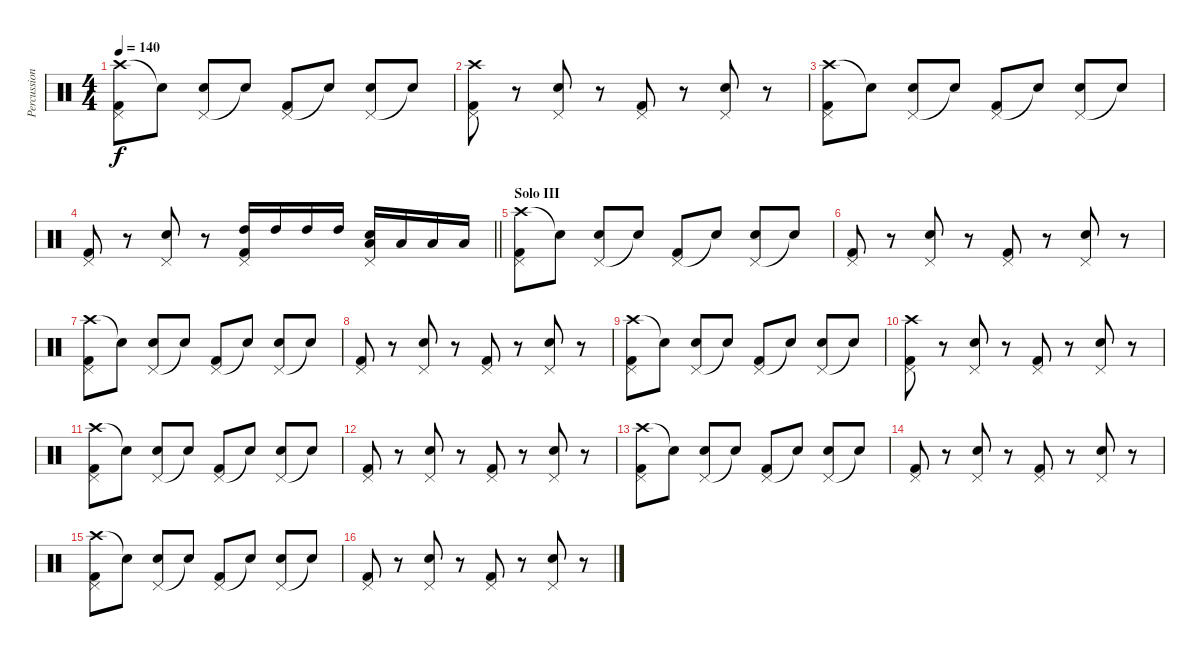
\track ("Percussion" "Percussion") {instrument percussion}
\staff {score}
\articulation defaults
\ts (4 4)
\tempo 140
\clef neutral
\ks c
("Crash high (hit)" "Pedal Hi-Hat (hit)" "Kick (hit) 2").8{dy f} "Snare (hit)"{t}.8 ("Pedal Hi-Hat (hit)" "Electric Snare (hit)").8 "Snare (hit)"{t}.8 ("Pedal Hi-Hat (hit)" "Kick (hit) 2").8 "Snare (hit)"{t}.8 ("Pedal Hi-Hat (hit)" "Electric Snare (hit)").8 "Snare (hit)"{t}.8 |
("Crash high (hit)" "Pedal Hi-Hat (hit)" "Kick (hit) 2").8 r.8 ("Pedal Hi-Hat (hit)" "Electric Snare (hit)").8 r.8 ("Pedal Hi-Hat (hit)" "Kick (hit) 2").8 r.8 ("Pedal Hi-Hat (hit)" "Electric Snare (hit)").8 r.8 |
("Crash high (hit)" "Pedal Hi-Hat (hit)" "Kick (hit) 2").8 "Snare (hit)"{t}.8 ("Pedal Hi-Hat (hit)" "Electric Snare (hit)").8 "Snare (hit)"{t}.8 ("Pedal Hi-Hat (hit)" "Kick (hit) 2").8 "Snare (hit)"{t}.8 ("Pedal Hi-Hat (hit)" "Electric Snare (hit)").8 "Snare (hit)"{t}.8 |
\barLineRight lightlight
("Pedal Hi-Hat (hit)" "Kick (hit) 2").8 r.8 ("Pedal Hi-Hat (hit)" "Electric Snare (hit)").8 r.8 ("High Tom (hit)" "Pedal Hi-Hat (hit)" "Kick (hit) 2").16 "High Tom (hit)".16 "High Tom (hit)".16 "High Tom (hit)".16 ("Low Tom (hit)" "Pedal Hi-Hat (hit)" "Electric Snare (hit)").16 "Low Tom (hit)".16 "Low Tom (hit)".16 "Low Tom (hit)".16 |
\section ("" "Solo III")
("Crash high (hit)" "Pedal Hi-Hat (hit)" "Kick (hit) 2").8 "Snare (hit)"{t}.8 ("Pedal Hi-Hat (hit)" "Electric Snare (hit)").8 "Snare (hit)"{t}.8 ("Pedal Hi-Hat (hit)" "Kick (hit) 2").8 "Snare (hit)"{t}.8 ("Pedal Hi-Hat (hit)" "Electric Snare (hit)").8 "Snare (hit)"{t}.8 |
("Pedal Hi-Hat (hit)" "Kick (hit) 2").8 r.8 ("Pedal Hi-Hat (hit)" "Electric Snare (hit)").8 r.8 ("Pedal Hi-Hat (hit)" "Kick (hit) 2").8 r.8 ("Pedal Hi-Hat (hit)" "Electric Snare (hit)").8 r.8 |
("Crash high (hit)" "Pedal Hi-Hat (hit)" "Kick (hit) 2").8 "Snare (hit)"{t}.8 ("Pedal Hi-Hat (hit)" "Electric Snare (hit)").8 "Snare (hit)"{t}.8 ("Pedal Hi-Hat (hit)" "Kick (hit) 2").8 "Snare (hit)"{t}.8 ("Pedal Hi-Hat (hit)" "Electric Snare (hit)").8 "Snare (hit)"{t}.8 |
("Pedal Hi-Hat (hit)" "Kick (hit) 2").8 r.8 ("Pedal Hi-Hat (hit)" "Electric Snare (hit)").8 r.8 ("Pedal Hi-Hat (hit)" "Kick (hit) 2").8 r.8 ("Pedal Hi-Hat (hit)" "Electric Snare (hit)").8 r.8 |
("Crash high (hit)" "Pedal Hi-Hat (hit)" "Kick (hit) 2").8 "Snare (hit)"{t}.8 ("Pedal Hi-Hat (hit)" "Electric Snare (hit)").8 "Snare (hit)"{t}.8 ("Pedal Hi-Hat (hit)" "Kick (hit) 2").8 "Snare (hit)"{t}.8 ("Pedal Hi-Hat (hit)" "Electric Snare (hit)").8 "Snare (hit)"{t}.8 |
("Crash high (hit)" "Pedal Hi-Hat (hit)" "Kick (hit) 2").8 r.8 ("Pedal Hi-Hat (hit)" "Electric Snare (hit)").8 r.8 ("Pedal Hi-Hat (hit)" "Kick (hit) 2").8 r.8 ("Pedal Hi-Hat (hit)" "Electric Snare (hit)").8 r.8 |
("Crash high (hit)" "Pedal Hi-Hat (hit)" "Kick (hit) 2").8 "Snare (hit)"{t}.8 ("Pedal Hi-Hat (hit)" "Electric Snare (hit)").8 "Snare (hit)"{t}.8 ("Pedal Hi-Hat (hit)" "Kick (hit) 2").8 "Snare (hit)"{t}.8 ("Pedal Hi-Hat (hit)" "Electric Snare (hit)").8 "Snare (hit)"{t}.8 |
("Pedal Hi-Hat (hit)" "Kick (hit) 2").8 r.8 ("Pedal Hi-Hat (hit)" "Electric Snare (hit)").8 r.8 ("Pedal Hi-Hat (hit)" "Kick (hit) 2").8 r.8 ("Pedal Hi-Hat (hit)" "Electric Snare (hit)").8 r.8 |
("Crash high (hit)" "Pedal Hi-Hat (hit)" "Kick (hit) 2").8 "Snare (hit)"{t}.8 ("Pedal Hi-Hat (hit)" "Electric Snare (hit)").8 "Snare (hit)"{t}.8 ("Pedal Hi-Hat (hit)" "Kick (hit) 2").8 "Snare (hit)"{t}.8 ("Pedal Hi-Hat (hit)" "Electric Snare (hit)").8 "Snare (hit)"{t}.8 |
("Pedal Hi-Hat (hit)" "Kick (hit) 2").8 r.8 ("Pedal Hi-Hat (hit)" "Electric Snare (hit)").8 r.8 ("Pedal Hi-Hat (hit)" "Kick (hit) 2").8 r.8 ("Pedal Hi-Hat (hit)" "Electric Snare (hit)").8 r.8 |
("Crash high (hit)" "Pedal Hi-Hat (hit)" "Kick (hit) 2").8 "Snare (hit)"{t}.8 ("Pedal Hi-Hat (hit)" "Electric Snare (hit)").8 "Snare (hit)"{t}.8 ("Pedal Hi-Hat (hit)" "Kick (hit) 2").8 "Snare (hit)"{t}.8 ("Pedal Hi-Hat (hit)" "Electric Snare (hit)").8 "Snare (hit)"{t}.8 |
("Pedal Hi-Hat (hit)" "Kick (hit) 2").8 r.8 ("Pedal Hi-Hat (hit)" "Electric Snare (hit)").8 r.8 ("Pedal Hi-Hat (hit)" "Kick (hit) 2").8 r.8 ("Pedal Hi-Hat (hit)" "Electric Snare (hit)").8 r.8
